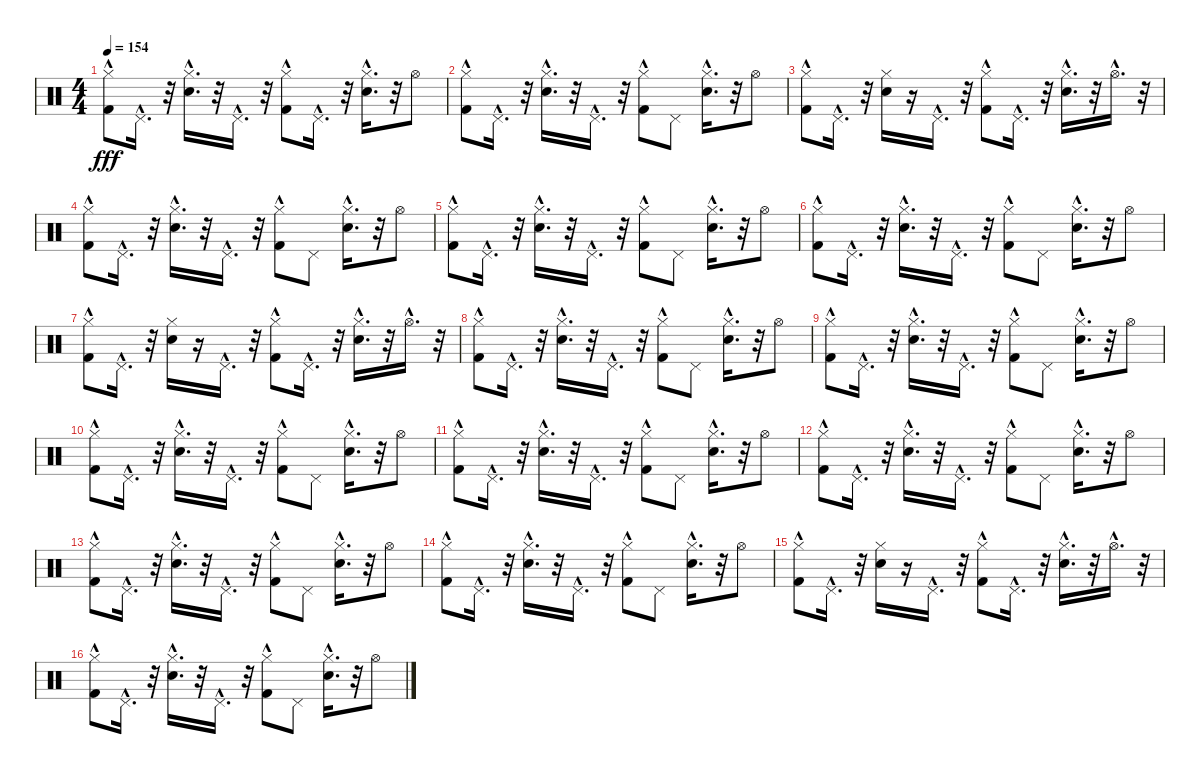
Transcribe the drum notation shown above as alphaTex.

\track "" {instrument percussion}
\staff {score}
\articulation defaults
\ts (4 4)
\tempo 154
\clef neutral
\ks c
("Kick (hit) 2" "Hi-Hat (closed)"{hac}).8{dy fff} "Pedal Hi-Hat (hit)"{hac}.16{d} r.32 ("Electric Snare (hit)"{hac} "Hi-Hat (closed)").16{d} r.32 "Pedal Hi-Hat (hit)"{hac}.16{d} r.32 ("Hi-Hat (closed)"{hac} "Kick (hit) 2").8 "Pedal Hi-Hat (hit)"{hac}.16{d} r.32 ("Hi-Hat (closed)"{hac} "Electric Snare (hit)"{hac}).16{d} r.32 "Hi-Hat (open)".8 |
("Kick (hit) 2" "Hi-Hat (closed)"{hac}).8 "Pedal Hi-Hat (hit)"{hac}.16{d} r.32 ("Electric Snare (hit)"{hac} "Hi-Hat (closed)").16{d} r.32 "Pedal Hi-Hat (hit)"{hac}.16{d} r.32 ("Hi-Hat (closed)"{hac} "Kick (hit) 2").8 "Pedal Hi-Hat (hit)".8 ("Electric Snare (hit)"{hac} "Hi-Hat (closed)").16{d} r.32 "Hi-Hat (open)".8 |
("Kick (hit) 2" "Hi-Hat (closed)"{hac}).8 "Pedal Hi-Hat (hit)"{hac}.16{d} r.32 ("Electric Snare (hit)" "Hi-Hat (closed)").16 r.16 "Pedal Hi-Hat (hit)"{hac}.16{d} r.32 ("Hi-Hat (closed)"{hac} "Kick (hit) 2").8 "Pedal Hi-Hat (hit)"{hac}.16{d} r.32 ("Electric Snare (hit)"{hac} "Hi-Hat (closed)"{hac}).16{d} r.32 "Hi-Hat (open)"{hac}.16{d} r.32 |
("Kick (hit) 2" "Hi-Hat (closed)"{hac}).8 "Pedal Hi-Hat (hit)"{hac}.16{d} r.32 ("Electric Snare (hit)"{hac} "Hi-Hat (closed)").16{d} r.32 "Pedal Hi-Hat (hit)"{hac}.16{d} r.32 ("Hi-Hat (closed)"{hac} "Kick (hit) 2").8 "Pedal Hi-Hat (hit)".8 ("Electric Snare (hit)"{hac} "Hi-Hat (closed)").16{d} r.32 "Hi-Hat (open)".8 |
("Kick (hit) 2" "Hi-Hat (closed)"{hac}).8 "Pedal Hi-Hat (hit)"{hac}.16{d} r.32 ("Electric Snare (hit)"{hac} "Hi-Hat (closed)").16{d} r.32 "Pedal Hi-Hat (hit)"{hac}.16{d} r.32 ("Hi-Hat (closed)"{hac} "Kick (hit) 2").8 "Pedal Hi-Hat (hit)".8 ("Electric Snare (hit)"{hac} "Hi-Hat (closed)").16{d} r.32 "Hi-Hat (open)".8 |
("Kick (hit) 2" "Hi-Hat (closed)"{hac}).8 "Pedal Hi-Hat (hit)"{hac}.16{d} r.32 ("Electric Snare (hit)"{hac} "Hi-Hat (closed)").16{d} r.32 "Pedal Hi-Hat (hit)"{hac}.16{d} r.32 ("Hi-Hat (closed)"{hac} "Kick (hit) 2").8 "Pedal Hi-Hat (hit)".8 ("Electric Snare (hit)"{hac} "Hi-Hat (closed)").16{d} r.32 "Hi-Hat (open)".8 |
("Kick (hit) 2" "Hi-Hat (closed)"{hac}).8 "Pedal Hi-Hat (hit)"{hac}.16{d} r.32 ("Electric Snare (hit)" "Hi-Hat (closed)").16 r.16 "Pedal Hi-Hat (hit)"{hac}.16{d} r.32 ("Hi-Hat (closed)"{hac} "Kick (hit) 2").8 "Pedal Hi-Hat (hit)"{hac}.16{d} r.32 ("Electric Snare (hit)"{hac} "Hi-Hat (closed)"{hac}).16{d} r.32 "Hi-Hat (open)"{hac}.16{d} r.32 |
("Kick (hit) 2" "Hi-Hat (closed)"{hac}).8 "Pedal Hi-Hat (hit)"{hac}.16{d} r.32 ("Electric Snare (hit)"{hac} "Hi-Hat (closed)").16{d} r.32 "Pedal Hi-Hat (hit)"{hac}.16{d} r.32 ("Hi-Hat (closed)"{hac} "Kick (hit) 2").8 "Pedal Hi-Hat (hit)".8 ("Electric Snare (hit)"{hac} "Hi-Hat (closed)").16{d} r.32 "Hi-Hat (open)".8 |
("Kick (hit) 2" "Hi-Hat (closed)"{hac}).8 "Pedal Hi-Hat (hit)"{hac}.16{d} r.32 ("Electric Snare (hit)"{hac} "Hi-Hat (closed)").16{d} r.32 "Pedal Hi-Hat (hit)"{hac}.16{d} r.32 ("Hi-Hat (closed)"{hac} "Kick (hit) 2").8 "Pedal Hi-Hat (hit)".8 ("Electric Snare (hit)"{hac} "Hi-Hat (closed)").16{d} r.32 "Hi-Hat (open)".8 |
("Kick (hit) 2" "Hi-Hat (closed)"{hac}).8 "Pedal Hi-Hat (hit)"{hac}.16{d} r.32 ("Electric Snare (hit)"{hac} "Hi-Hat (closed)").16{d} r.32 "Pedal Hi-Hat (hit)"{hac}.16{d} r.32 ("Hi-Hat (closed)"{hac} "Kick (hit) 2").8 "Pedal Hi-Hat (hit)".8 ("Electric Snare (hit)"{hac} "Hi-Hat (closed)").16{d} r.32 "Hi-Hat (open)".8 |
("Kick (hit) 2" "Hi-Hat (closed)"{hac}).8 "Pedal Hi-Hat (hit)"{hac}.16{d} r.32 ("Electric Snare (hit)"{hac} "Hi-Hat (closed)").16{d} r.32 "Pedal Hi-Hat (hit)"{hac}.16{d} r.32 ("Hi-Hat (closed)"{hac} "Kick (hit) 2").8 "Pedal Hi-Hat (hit)".8 ("Electric Snare (hit)"{hac} "Hi-Hat (closed)").16{d} r.32 "Hi-Hat (open)".8 |
("Kick (hit) 2" "Hi-Hat (closed)"{hac}).8 "Pedal Hi-Hat (hit)"{hac}.16{d} r.32 ("Electric Snare (hit)"{hac} "Hi-Hat (closed)").16{d} r.32 "Pedal Hi-Hat (hit)"{hac}.16{d} r.32 ("Hi-Hat (closed)"{hac} "Kick (hit) 2").8 "Pedal Hi-Hat (hit)".8 ("Electric Snare (hit)"{hac} "Hi-Hat (closed)").16{d} r.32 "Hi-Hat (open)".8 |
("Kick (hit) 2" "Hi-Hat (closed)"{hac}).8 "Pedal Hi-Hat (hit)"{hac}.16{d} r.32 ("Electric Snare (hit)"{hac} "Hi-Hat (closed)").16{d} r.32 "Pedal Hi-Hat (hit)"{hac}.16{d} r.32 ("Hi-Hat (closed)"{hac} "Kick (hit) 2").8 "Pedal Hi-Hat (hit)".8 ("Electric Snare (hit)"{hac} "Hi-Hat (closed)").16{d} r.32 "Hi-Hat (open)".8 |
("Kick (hit) 2" "Hi-Hat (closed)"{hac}).8 "Pedal Hi-Hat (hit)"{hac}.16{d} r.32 ("Electric Snare (hit)"{hac} "Hi-Hat (closed)").16{d} r.32 "Pedal Hi-Hat (hit)"{hac}.16{d} r.32 ("Hi-Hat (closed)"{hac} "Kick (hit) 2").8 "Pedal Hi-Hat (hit)".8 ("Electric Snare (hit)"{hac} "Hi-Hat (closed)").16{d} r.32 "Hi-Hat (open)".8 |
("Kick (hit) 2" "Hi-Hat (closed)"{hac}).8 "Pedal Hi-Hat (hit)"{hac}.16{d} r.32 ("Electric Snare (hit)" "Hi-Hat (closed)").16 r.16 "Pedal Hi-Hat (hit)"{hac}.16{d} r.32 ("Hi-Hat (closed)"{hac} "Kick (hit) 2").8 "Pedal Hi-Hat (hit)"{hac}.16{d} r.32 ("Electric Snare (hit)"{hac} "Hi-Hat (closed)"{hac}).16{d} r.32 "Hi-Hat (open)"{hac}.16{d} r.32 |
("Kick (hit) 2" "Hi-Hat (closed)"{hac}).8 "Pedal Hi-Hat (hit)"{hac}.16{d} r.32 ("Electric Snare (hit)"{hac} "Hi-Hat (closed)").16{d} r.32 "Pedal Hi-Hat (hit)"{hac}.16{d} r.32 ("Hi-Hat (closed)"{hac} "Kick (hit) 2").8 "Pedal Hi-Hat (hit)".8 ("Electric Snare (hit)"{hac} "Hi-Hat (closed)").16{d} r.32 "Hi-Hat (open)".8
